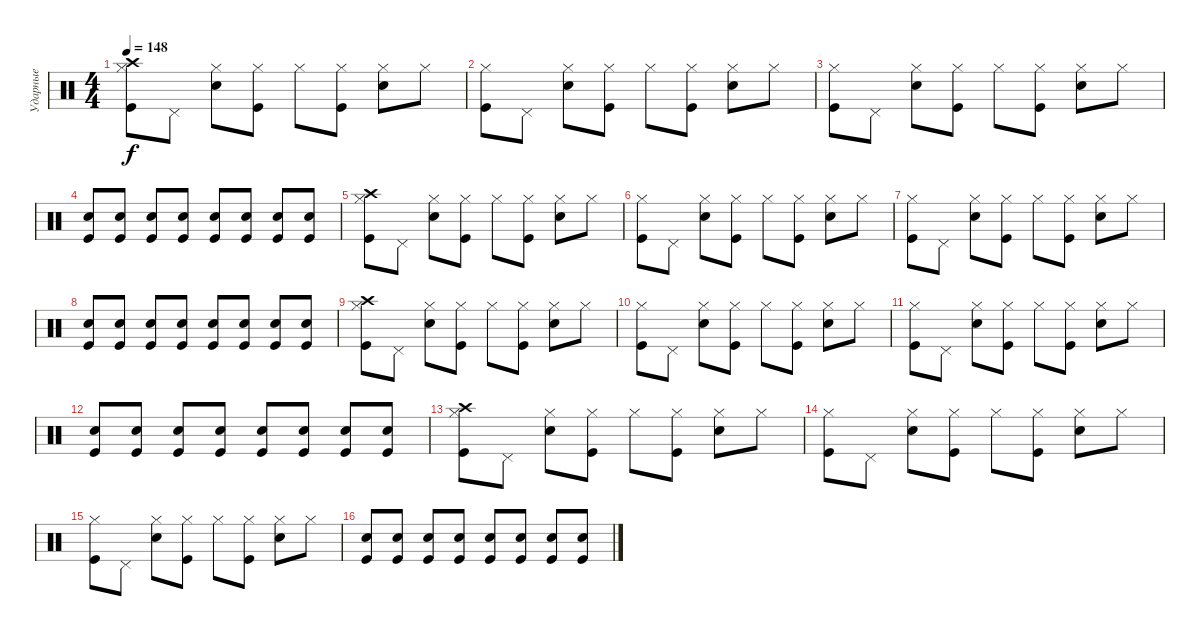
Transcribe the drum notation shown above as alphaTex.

\track ("Ударные" "Ударные") {instrument percussion}
\staff {score}
\articulation defaults
\ts (4 4)
\tempo 148
\clef neutral
\ks c
("Hi-Hat (closed)" "Crash high (hit)" "Kick (hit)").8{dy f} "Pedal Hi-Hat (hit)".8 ("Hi-Hat (closed)" "Snare (hit) 2").8 ("Hi-Hat (closed)" "Kick (hit)").8 "Hi-Hat (closed)".8 ("Hi-Hat (closed)" "Kick (hit)").8 ("Hi-Hat (closed)" "Snare (hit) 2").8 "Hi-Hat (closed)".8 |
("Hi-Hat (closed)" "Kick (hit)").8 "Pedal Hi-Hat (hit)".8 ("Hi-Hat (closed)" "Snare (hit) 2").8 ("Hi-Hat (closed)" "Kick (hit)").8 "Hi-Hat (closed)".8 ("Hi-Hat (closed)" "Kick (hit)").8 ("Hi-Hat (closed)" "Snare (hit) 2").8 "Hi-Hat (closed)".8 |
("Hi-Hat (closed)" "Kick (hit)").8 "Pedal Hi-Hat (hit)".8 ("Hi-Hat (closed)" "Snare (hit) 2").8 ("Hi-Hat (closed)" "Kick (hit)").8 "Hi-Hat (closed)".8 ("Hi-Hat (closed)" "Kick (hit)").8 ("Hi-Hat (closed)" "Snare (hit) 2").8 "Hi-Hat (closed)".8 |
("Snare (hit) 2" "Kick (hit)").8 ("Snare (hit) 2" "Kick (hit)").8 ("Snare (hit) 2" "Kick (hit)").8 ("Snare (hit) 2" "Kick (hit)").8 ("Snare (hit) 2" "Kick (hit)").8 ("Snare (hit) 2" "Kick (hit)").8 ("Snare (hit) 2" "Kick (hit)").8 ("Snare (hit) 2" "Kick (hit)").8 |
("Hi-Hat (closed)" "Crash high (hit)" "Kick (hit)").8 "Pedal Hi-Hat (hit)".8 ("Hi-Hat (closed)" "Snare (hit) 2").8 ("Hi-Hat (closed)" "Kick (hit)").8 "Hi-Hat (closed)".8 ("Hi-Hat (closed)" "Kick (hit)").8 ("Hi-Hat (closed)" "Snare (hit) 2").8 "Hi-Hat (closed)".8 |
("Hi-Hat (closed)" "Kick (hit)").8 "Pedal Hi-Hat (hit)".8 ("Hi-Hat (closed)" "Snare (hit) 2").8 ("Hi-Hat (closed)" "Kick (hit)").8 "Hi-Hat (closed)".8 ("Hi-Hat (closed)" "Kick (hit)").8 ("Hi-Hat (closed)" "Snare (hit) 2").8 "Hi-Hat (closed)".8 |
("Hi-Hat (closed)" "Kick (hit)").8 "Pedal Hi-Hat (hit)".8 ("Hi-Hat (closed)" "Snare (hit) 2").8 ("Hi-Hat (closed)" "Kick (hit)").8 "Hi-Hat (closed)".8 ("Hi-Hat (closed)" "Kick (hit)").8 ("Hi-Hat (closed)" "Snare (hit) 2").8 "Hi-Hat (closed)".8 |
("Kick (hit)" "Snare (hit) 2").8 ("Kick (hit)" "Snare (hit) 2").8 ("Kick (hit)" "Snare (hit) 2").8 ("Kick (hit)" "Snare (hit) 2").8 ("Kick (hit)" "Snare (hit) 2").8 ("Kick (hit)" "Snare (hit) 2").8 ("Kick (hit)" "Snare (hit) 2").8 ("Kick (hit)" "Snare (hit) 2").8 |
("Hi-Hat (closed)" "Crash high (hit)" "Kick (hit)").8 "Pedal Hi-Hat (hit)".8 ("Hi-Hat (closed)" "Snare (hit) 2").8 ("Hi-Hat (closed)" "Kick (hit)").8 "Hi-Hat (closed)".8 ("Hi-Hat (closed)" "Kick (hit)").8 ("Hi-Hat (closed)" "Snare (hit) 2").8 "Hi-Hat (closed)".8 |
("Hi-Hat (closed)" "Kick (hit)").8 "Pedal Hi-Hat (hit)".8 ("Hi-Hat (closed)" "Snare (hit) 2").8 ("Hi-Hat (closed)" "Kick (hit)").8 "Hi-Hat (closed)".8 ("Hi-Hat (closed)" "Kick (hit)").8 ("Hi-Hat (closed)" "Snare (hit) 2").8 "Hi-Hat (closed)".8 |
("Hi-Hat (closed)" "Kick (hit)").8 "Pedal Hi-Hat (hit)".8 ("Hi-Hat (closed)" "Snare (hit) 2").8 ("Hi-Hat (closed)" "Kick (hit)").8 "Hi-Hat (closed)".8 ("Hi-Hat (closed)" "Kick (hit)").8 ("Hi-Hat (closed)" "Snare (hit) 2").8 "Hi-Hat (closed)".8 |
("Snare (hit) 2" "Kick (hit)").8 ("Snare (hit) 2" "Kick (hit)").8 ("Snare (hit) 2" "Kick (hit)").8 ("Snare (hit) 2" "Kick (hit)").8 ("Snare (hit) 2" "Kick (hit)").8 ("Snare (hit) 2" "Kick (hit)").8 ("Snare (hit) 2" "Kick (hit)").8 ("Snare (hit) 2" "Kick (hit)").8 |
("Hi-Hat (closed)" "Crash high (hit)" "Kick (hit)").8 "Pedal Hi-Hat (hit)".8 ("Hi-Hat (closed)" "Snare (hit) 2").8 ("Hi-Hat (closed)" "Kick (hit)").8 "Hi-Hat (closed)".8 ("Hi-Hat (closed)" "Kick (hit)").8 ("Hi-Hat (closed)" "Snare (hit) 2").8 "Hi-Hat (closed)".8 |
("Hi-Hat (closed)" "Kick (hit)").8 "Pedal Hi-Hat (hit)".8 ("Hi-Hat (closed)" "Snare (hit) 2").8 ("Hi-Hat (closed)" "Kick (hit)").8 "Hi-Hat (closed)".8 ("Hi-Hat (closed)" "Kick (hit)").8 ("Hi-Hat (closed)" "Snare (hit) 2").8 "Hi-Hat (closed)".8 |
("Hi-Hat (closed)" "Kick (hit)").8 "Pedal Hi-Hat (hit)".8 ("Hi-Hat (closed)" "Snare (hit) 2").8 ("Hi-Hat (closed)" "Kick (hit)").8 "Hi-Hat (closed)".8 ("Hi-Hat (closed)" "Kick (hit)").8 ("Hi-Hat (closed)" "Snare (hit) 2").8 "Hi-Hat (closed)".8 |
("Kick (hit)" "Snare (hit) 2").8 ("Kick (hit)" "Snare (hit) 2").8 ("Kick (hit)" "Snare (hit) 2").8 ("Kick (hit)" "Snare (hit) 2").8 ("Kick (hit)" "Snare (hit) 2").8 ("Kick (hit)" "Snare (hit) 2").8 ("Kick (hit)" "Snare (hit) 2").8 ("Kick (hit)" "Snare (hit) 2").8
